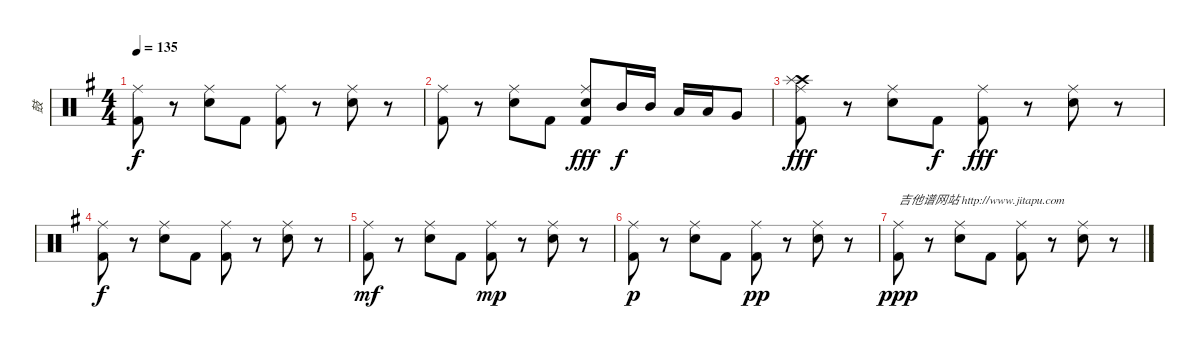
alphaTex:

\track ("鼓" "鼓") {instrument percussion}
\staff {score}
\articulation defaults
\ts (4 4)
\tempo 135
\clef neutral
\ks g
("Kick (hit) 2" "Ride (middle)").8{dy f} r.8 ("Snare (hit) 2" "Ride (middle)").8 "Kick (hit) 2".8 ("Kick (hit) 2" "Ride (middle)").8 r.8 ("Snare (hit) 2" "Ride (middle)").8 r.8 |
("Kick (hit) 2" "Ride (middle)").8 r.8 ("Snare (hit) 2" "Ride (middle)").8 "Kick (hit) 2".8 ("Kick (hit) 2" "Snare (hit) 2" "Ride (middle)").8{dy fff} "Mid Tom (hit)".16{dy f} "Mid Tom (hit)".16 "Low Tom (hit)".16 "Low Tom (hit)".16 "Very Low Tom (hit)".8 |
("Crash high (hit)" "Splash (hit)" "Kick (hit) 2" "Ride (middle)").8{dy fff} r.8 ("Snare (hit) 2" "Ride (middle)").8 "Kick (hit) 2".8{dy f} ("Kick (hit) 2" "Ride (middle)").8{dy fff} r.8 ("Snare (hit) 2" "Ride (middle)").8 r.8 |
("Kick (hit) 2" "Ride (middle)").8{dy f} r.8 ("Snare (hit) 2" "Ride (middle)").8 "Kick (hit) 2".8 ("Kick (hit) 2" "Ride (middle)").8 r.8 ("Snare (hit) 2" "Ride (middle)").8 r.8 |
("Kick (hit) 2" "Ride (middle)").8{dy mf} r.8 ("Snare (hit) 2" "Ride (middle)").8 "Kick (hit) 2".8 ("Kick (hit) 2" "Ride (middle)").8{dy mp} r.8 ("Snare (hit) 2" "Ride (middle)").8 r.8 |
("Kick (hit) 2" "Ride (middle)").8{dy p} r.8 ("Snare (hit) 2" "Ride (middle)").8 "Kick (hit) 2".8 ("Kick (hit) 2" "Ride (middle)").8{dy pp} r.8 ("Snare (hit) 2" "Ride (middle)").8 r.8 |
("Kick (hit) 2" "Ride (middle)").8{txt "吉他谱网站 http://www.jitapu.com" dy ppp} r.8 ("Snare (hit) 2" "Ride (middle)").8 "Kick (hit) 2".8 ("Kick (hit) 2" "Ride (middle)").8 r.8 ("Snare (hit) 2" "Ride (middle)").8 r.8
